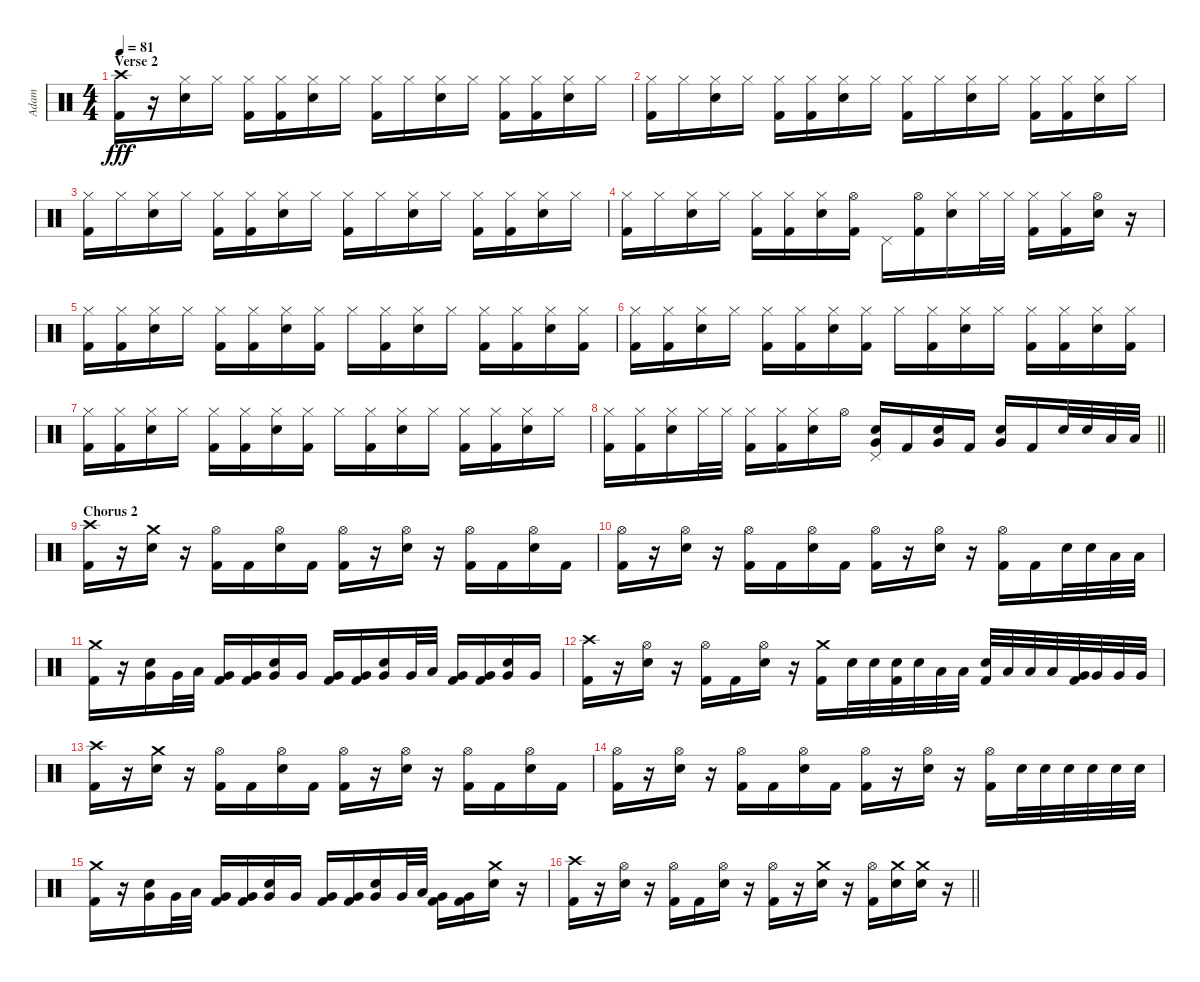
\track ("Adam" "Adam") {instrument percussion}
\staff {score}
\articulation defaults
\ts (4 4)
\section ("" "Verse 2")
\tempo 81
\clef neutral
\ks c
("Crash high (hit)" "Kick (hit) 2").16{dy fff} r.16 ("Hi-Hat (closed)" "Electric Snare (hit)").16 "Hi-Hat (closed)".16 ("Hi-Hat (closed)" "Kick (hit) 2").16 ("Hi-Hat (closed)" "Kick (hit) 2").16 ("Hi-Hat (closed)" "Electric Snare (hit)").16 "Hi-Hat (closed)".16 ("Hi-Hat (closed)" "Kick (hit) 2").16 "Hi-Hat (closed)".16 ("Hi-Hat (closed)" "Electric Snare (hit)").16 "Hi-Hat (closed)".16 ("Hi-Hat (closed)" "Kick (hit) 2").16 ("Hi-Hat (closed)" "Kick (hit) 2").16 ("Hi-Hat (closed)" "Electric Snare (hit)").16 "Hi-Hat (closed)".16 |
("Hi-Hat (closed)" "Kick (hit) 2").16 "Hi-Hat (closed)".16 ("Hi-Hat (closed)" "Electric Snare (hit)").16 "Hi-Hat (closed)".16 ("Hi-Hat (closed)" "Kick (hit) 2").16 ("Hi-Hat (closed)" "Kick (hit) 2").16 ("Hi-Hat (closed)" "Electric Snare (hit)").16 "Hi-Hat (closed)".16 ("Hi-Hat (closed)" "Kick (hit) 2").16 "Hi-Hat (closed)".16 ("Hi-Hat (closed)" "Electric Snare (hit)").16 "Hi-Hat (closed)".16 ("Hi-Hat (closed)" "Kick (hit) 2").16 ("Hi-Hat (closed)" "Kick (hit) 2").16 ("Hi-Hat (closed)" "Electric Snare (hit)").16 "Hi-Hat (closed)".16 |
("Hi-Hat (closed)" "Kick (hit) 2").16 "Hi-Hat (closed)".16 ("Hi-Hat (closed)" "Electric Snare (hit)").16 "Hi-Hat (closed)".16 ("Hi-Hat (closed)" "Kick (hit) 2").16 ("Hi-Hat (closed)" "Kick (hit) 2").16 ("Hi-Hat (closed)" "Electric Snare (hit)").16 "Hi-Hat (closed)".16 ("Hi-Hat (closed)" "Kick (hit) 2").16 "Hi-Hat (closed)".16 ("Hi-Hat (closed)" "Electric Snare (hit)").16 "Hi-Hat (closed)".16 ("Hi-Hat (closed)" "Kick (hit) 2").16 ("Hi-Hat (closed)" "Kick (hit) 2").16 ("Hi-Hat (closed)" "Electric Snare (hit)").16 "Hi-Hat (closed)".16 |
("Hi-Hat (closed)" "Kick (hit) 2").16 "Hi-Hat (closed)".16 ("Hi-Hat (closed)" "Electric Snare (hit)").16 "Hi-Hat (closed)".16 ("Hi-Hat (closed)" "Kick (hit) 2").16 ("Hi-Hat (closed)" "Kick (hit) 2").16 ("Hi-Hat (closed)" "Electric Snare (hit)").16 ("Hi-Hat (open)" "Kick (hit) 2").16 "Pedal Hi-Hat (hit)".16 ("Hi-Hat (open)" "Kick (hit) 2").16 ("Hi-Hat (closed)" "Electric Snare (hit)").16 "Hi-Hat (closed)".32 "Hi-Hat (closed)".32 ("Hi-Hat (closed)" "Kick (hit) 2").16 ("Hi-Hat (closed)" "Kick (hit) 2").16 ("Hi-Hat (open)" "Electric Snare (hit)").16 r.16 |
("Hi-Hat (closed)" "Kick (hit) 2").16 ("Hi-Hat (closed)" "Kick (hit) 2").16 ("Hi-Hat (closed)" "Electric Snare (hit)").16 "Hi-Hat (closed)".16 ("Hi-Hat (closed)" "Kick (hit) 2").16 ("Hi-Hat (closed)" "Kick (hit) 2").16 ("Hi-Hat (closed)" "Electric Snare (hit)").16 ("Hi-Hat (closed)" "Kick (hit) 2").16 "Hi-Hat (closed)".16 ("Hi-Hat (closed)" "Kick (hit) 2").16 ("Hi-Hat (closed)" "Electric Snare (hit)").16 "Hi-Hat (closed)".16 ("Hi-Hat (closed)" "Kick (hit) 2").16 ("Hi-Hat (closed)" "Kick (hit) 2").16 ("Hi-Hat (closed)" "Electric Snare (hit)").16 ("Hi-Hat (closed)" "Kick (hit) 2").16 |
("Hi-Hat (closed)" "Kick (hit) 2").16 ("Hi-Hat (closed)" "Kick (hit) 2").16 ("Hi-Hat (closed)" "Electric Snare (hit)").16 "Hi-Hat (closed)".16 ("Hi-Hat (closed)" "Kick (hit) 2").16 ("Hi-Hat (closed)" "Kick (hit) 2").16 ("Hi-Hat (closed)" "Electric Snare (hit)").16 ("Hi-Hat (closed)" "Kick (hit) 2").16 "Hi-Hat (closed)".16 ("Hi-Hat (closed)" "Kick (hit) 2").16 ("Hi-Hat (closed)" "Electric Snare (hit)").16 "Hi-Hat (closed)".16 ("Hi-Hat (closed)" "Kick (hit) 2").16 ("Hi-Hat (closed)" "Kick (hit) 2").16 ("Hi-Hat (closed)" "Electric Snare (hit)").16 ("Hi-Hat (closed)" "Kick (hit) 2").16 |
("Hi-Hat (closed)" "Kick (hit) 2").16 ("Hi-Hat (closed)" "Kick (hit) 2").16 ("Hi-Hat (closed)" "Electric Snare (hit)").16 "Hi-Hat (closed)".16 ("Hi-Hat (closed)" "Kick (hit) 2").16 ("Hi-Hat (closed)" "Kick (hit) 2").16 ("Hi-Hat (closed)" "Electric Snare (hit)").16 ("Hi-Hat (closed)" "Kick (hit) 2").16 "Hi-Hat (closed)".16 ("Hi-Hat (closed)" "Kick (hit) 2").16 ("Hi-Hat (closed)" "Electric Snare (hit)").16 "Hi-Hat (closed)".16 ("Hi-Hat (closed)" "Kick (hit) 2").16 ("Hi-Hat (closed)" "Kick (hit) 2").16 ("Hi-Hat (closed)" "Electric Snare (hit)").16 "Hi-Hat (closed)".16 |
\barLineRight lightlight
("Hi-Hat (closed)" "Kick (hit) 2").16 ("Hi-Hat (closed)" "Kick (hit) 2").16 ("Hi-Hat (closed)" "Electric Snare (hit)").16 "Hi-Hat (closed)".32 "Hi-Hat (closed)".32 ("Hi-Hat (closed)" "Kick (hit) 2").16 ("Hi-Hat (closed)" "Kick (hit) 2").16 ("Hi-Hat (closed)" "Electric Snare (hit)").16 "Hi-Hat (open)".16 ("Pedal Hi-Hat (hit)" "Electric Snare (hit)" "Very Low Tom (hit)").16 "Kick (hit) 2".16 ("Electric Snare (hit)" "Very Low Tom (hit)").16 "Kick (hit) 2".16 ("Electric Snare (hit)" "Very Low Tom (hit)").16 "Kick (hit) 2".16 "Electric Snare (hit)".32 "Electric Snare (hit)".32 "Low Tom (hit)".32 "Low Tom (hit)".32 |
\section ("" "Chorus 2")
("Crash high (hit)" "Kick (hit) 2").16 r.16 ("Crash medium (hit)" "Electric Snare (hit)").16 r.16 ("Hi-Hat (open)" "Kick (hit) 2").16 "Kick (hit) 2".16 ("Hi-Hat (open)" "Electric Snare (hit)").16 "Kick (hit) 2".16 ("Hi-Hat (open)" "Kick (hit) 2").16 r.16 ("Hi-Hat (open)" "Electric Snare (hit)").16 r.16 ("Hi-Hat (open)" "Kick (hit) 2").16 "Kick (hit) 2".16 ("Hi-Hat (open)" "Electric Snare (hit)").16 "Kick (hit) 2".16 |
("Hi-Hat (open)" "Kick (hit) 2").16 r.16 ("Hi-Hat (open)" "Electric Snare (hit)").16 r.16 ("Hi-Hat (open)" "Kick (hit) 2").16 "Kick (hit) 2".16 ("Hi-Hat (open)" "Electric Snare (hit)").16 "Kick (hit) 2".16 ("Hi-Hat (open)" "Kick (hit) 2").16 r.16 ("Hi-Hat (open)" "Electric Snare (hit)").16 r.16 ("Hi-Hat (open)" "Kick (hit) 2").16 "Kick (hit) 2".16 "Electric Snare (hit)".32 "Electric Snare (hit)".32 "Low Tom (hit)".32 "Low Tom (hit)".32 |
("Crash medium (hit)" "Kick (hit) 2").16 r.16 ("Electric Snare (hit)" "Very Low Tom (hit)").16 "Very Low Tom (hit)".32 "Low Tom (hit)".32 ("Very Low Tom (hit)" "Kick (hit) 2").16 ("Very Low Tom (hit)" "Kick (hit) 2").16 ("Electric Snare (hit)" "Very Low Tom (hit)").16 "Very Low Tom (hit)".16 ("Very Low Tom (hit)" "Kick (hit) 2").16 ("Very Low Tom (hit)" "Kick (hit) 2").16 ("Electric Snare (hit)" "Very Low Tom (hit)").16 "Very Low Tom (hit)".32 "Low Tom (hit)".32 ("Very Low Tom (hit)" "Kick (hit) 2").16 ("Very Low Tom (hit)" "Kick (hit) 2").16 ("Electric Snare (hit)" "Very Low Tom (hit)").16 "Very Low Tom (hit)".16 |
("Crash high (hit)" "Kick (hit) 2").16 r.16 ("Hi-Hat (open)" "Electric Snare (hit)").16 r.16 ("Hi-Hat (open)" "Kick (hit) 2").16 "Kick (hit) 2".16 ("Hi-Hat (open)" "Electric Snare (hit)").16 r.16 ("Crash medium (hit)" "Kick (hit) 2").16 "Electric Snare (hit)".32 "Electric Snare (hit)".32 ("Electric Snare (hit)" "Kick (hit) 2").32 "Electric Snare (hit)".32 "Low Tom (hit)".32 "Low Tom (hit)".32 ("Electric Snare (hit)" "Kick (hit) 2").32 "Low Tom (hit)".32 "Low Tom (hit)".32 "Low Tom (hit)".32 ("Very Low Tom (hit)" "Kick (hit) 2").32 "Very Low Tom (hit)".32 "Very Low Tom (hit)".32 "Very Low Tom (hit)".32 |
("Crash high (hit)" "Kick (hit) 2").16 r.16 ("Crash medium (hit)" "Electric Snare (hit)").16 r.16 ("Hi-Hat (open)" "Kick (hit) 2").16 "Kick (hit) 2".16 ("Hi-Hat (open)" "Electric Snare (hit)").16 "Kick (hit) 2".16 ("Hi-Hat (open)" "Kick (hit) 2").16 r.16 ("Hi-Hat (open)" "Electric Snare (hit)").16 r.16 ("Hi-Hat (open)" "Kick (hit) 2").16 "Kick (hit) 2".16 ("Hi-Hat (open)" "Electric Snare (hit)").16 "Kick (hit) 2".16 |
("Hi-Hat (open)" "Kick (hit) 2").16 r.16 ("Hi-Hat (open)" "Electric Snare (hit)").16 r.16 ("Hi-Hat (open)" "Kick (hit) 2").16 "Kick (hit) 2".16 ("Hi-Hat (open)" "Electric Snare (hit)").16 "Kick (hit) 2".16 ("Hi-Hat (open)" "Kick (hit) 2").16 r.16 ("Hi-Hat (open)" "Electric Snare (hit)").16 r.16 ("Hi-Hat (open)" "Kick (hit) 2").16 "Electric Snare (hit)".32 "Electric Snare (hit)".32 "Electric Snare (hit)".32 "Electric Snare (hit)".32 "Electric Snare (hit)".32 "Electric Snare (hit)".32 |
("Crash medium (hit)" "Kick (hit) 2").16 r.16 ("Electric Snare (hit)" "Very Low Tom (hit)").16 "Very Low Tom (hit)".32 "Low Tom (hit)".32 ("Very Low Tom (hit)" "Kick (hit) 2").16 ("Very Low Tom (hit)" "Kick (hit) 2").16 ("Electric Snare (hit)" "Very Low Tom (hit)").16 "Very Low Tom (hit)".16 ("Very Low Tom (hit)" "Kick (hit) 2").16 ("Very Low Tom (hit)" "Kick (hit) 2").16 ("Electric Snare (hit)" "Very Low Tom (hit)").16 "Very Low Tom (hit)".32 "Low Tom (hit)".32 ("Very Low Tom (hit)" "Kick (hit) 2").16 ("Very Low Tom (hit)" "Kick (hit) 2").16 ("Crash medium (hit)" "Electric Snare (hit)").16 r.16 |
\barLineRight lightlight
("Crash high (hit)" "Kick (hit) 2").16 r.16 ("Hi-Hat (open)" "Electric Snare (hit)").16 r.16 ("Hi-Hat (open)" "Kick (hit) 2").16 "Kick (hit) 2".16 ("Hi-Hat (open)" "Electric Snare (hit)").16 r.16 ("Hi-Hat (open)" "Kick (hit) 2").16 r.16 ("Crash medium (hit)" "Electric Snare (hit)").16 r.16 ("Hi-Hat (open)" "Kick (hit) 2").16 ("Crash medium (hit)" "Electric Snare (hit)").16 ("Crash medium (hit)" "Electric Snare (hit)").16 r.16
